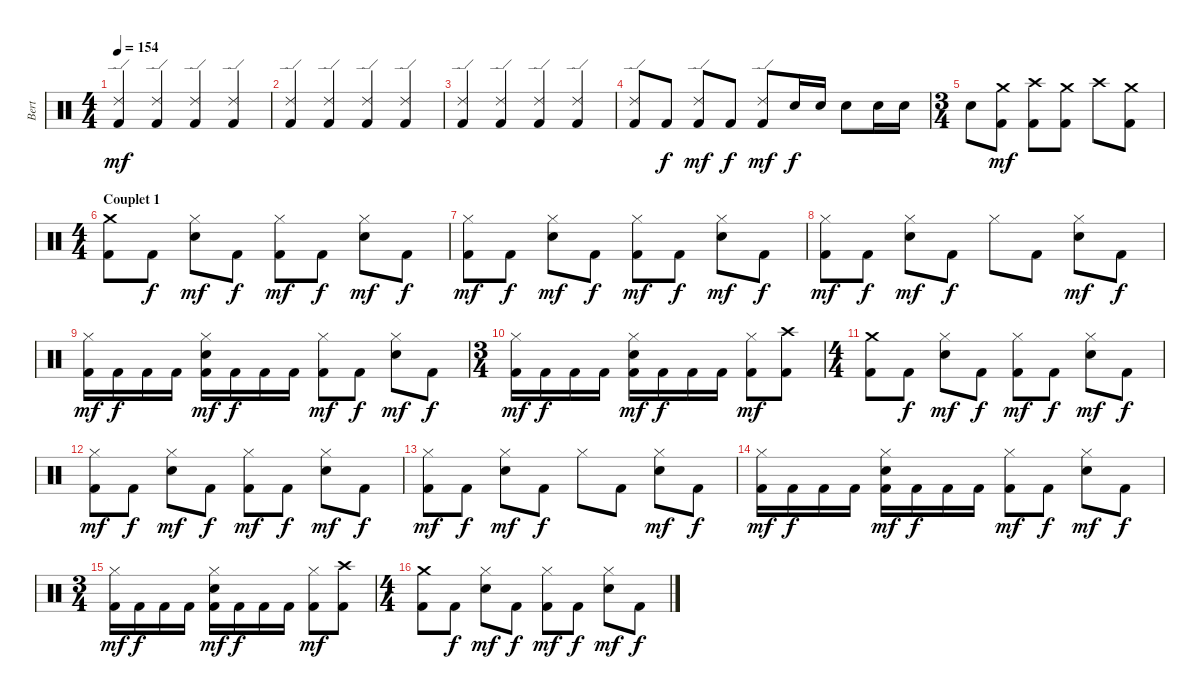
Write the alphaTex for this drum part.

\track ("Bert" "Bert") {instrument percussion}
\staff {score}
\articulation defaults
\ts (4 4)
\tempo 154
\clef neutral
\ks c
("Ride (edge) 2" "Kick (hit) 2").4{dy mf} ("Ride (edge) 2" "Kick (hit) 2").4 ("Ride (edge) 2" "Kick (hit) 2").4 ("Ride (edge) 2" "Kick (hit) 2").4 |
("Ride (edge) 2" "Kick (hit) 2").4 ("Ride (edge) 2" "Kick (hit) 2").4 ("Ride (edge) 2" "Kick (hit) 2").4 ("Ride (edge) 2" "Kick (hit) 2").4 |
("Ride (edge) 2" "Kick (hit) 2").4 ("Ride (edge) 2" "Kick (hit) 2").4 ("Ride (edge) 2" "Kick (hit) 2").4 ("Ride (edge) 2" "Kick (hit) 2").4 |
("Ride (edge) 2" "Kick (hit) 2").8 "Kick (hit) 2".8{dy f} ("Ride (edge) 2" "Kick (hit) 2").8{dy mf} "Kick (hit) 2".8{dy f} ("Ride (edge) 2" "Kick (hit) 2").8{dy mf} "Snare (hit) 2".16{dy f} "Snare (hit) 2".16 "Snare (hit) 2".8 "Snare (hit) 2".16 "Snare (hit) 2".16 |
\ts (3 4)
"Snare (hit) 2".8 ("Crash medium (hit)" "Kick (hit) 2").8{dy mf} ("Crash high (hit)" "Kick (hit) 2").8 ("Crash medium (hit)" "Kick (hit) 2").8 "Crash high (hit)".8 ("Crash medium (hit)" "Kick (hit) 2").8 |
\ts (4 4)
\section ("" "Couplet 1")
("Crash medium (hit)" "Kick (hit) 2").8 "Kick (hit) 2".8{dy f} ("Hi-Hat (closed)" "Snare (hit) 2").8{dy mf} "Kick (hit) 2".8{dy f} ("Hi-Hat (closed)" "Kick (hit) 2").8{dy mf} "Kick (hit) 2".8{dy f} ("Hi-Hat (closed)" "Snare (hit) 2").8{dy mf} "Kick (hit) 2".8{dy f} |
("Hi-Hat (closed)" "Kick (hit) 2").8{dy mf} "Kick (hit) 2".8{dy f} ("Hi-Hat (closed)" "Snare (hit) 2").8{dy mf} "Kick (hit) 2".8{dy f} ("Hi-Hat (closed)" "Kick (hit) 2").8{dy mf} "Kick (hit) 2".8{dy f} ("Hi-Hat (closed)" "Snare (hit) 2").8{dy mf} "Kick (hit) 2".8{dy f} |
("Hi-Hat (closed)" "Kick (hit) 2").8{dy mf} "Kick (hit) 2".8{dy f} ("Hi-Hat (closed)" "Snare (hit) 2").8{dy mf} "Kick (hit) 2".8{dy f} "Hi-Hat (closed)".8 "Kick (hit) 2".8 ("Hi-Hat (closed)" "Snare (hit) 2").8{dy mf} "Kick (hit) 2".8{dy f} |
("Hi-Hat (closed)" "Kick (hit) 2").16{dy mf} "Kick (hit) 2".16{dy f} "Kick (hit) 2".16 "Kick (hit) 2".16 ("Hi-Hat (closed)" "Snare (hit) 2" "Kick (hit) 2").16{dy mf} "Kick (hit) 2".16{dy f} "Kick (hit) 2".16 "Kick (hit) 2".16 ("Hi-Hat (closed)" "Kick (hit) 2").8{dy mf} "Kick (hit) 2".8{dy f} ("Hi-Hat (closed)" "Snare (hit) 2").8{dy mf} "Kick (hit) 2".8{dy f} |
\ts (3 4)
("Hi-Hat (closed)" "Kick (hit) 2").16{dy mf} "Kick (hit) 2".16{dy f} "Kick (hit) 2".16 "Kick (hit) 2".16 ("Hi-Hat (closed)" "Snare (hit) 2" "Kick (hit) 2").16{dy mf} "Kick (hit) 2".16{dy f} "Kick (hit) 2".16 "Kick (hit) 2".16 ("Hi-Hat (closed)" "Kick (hit) 2").8{dy mf} ("Crash high (hit)" "Kick (hit) 2").8 |
\ts (4 4)
("Crash medium (hit)" "Kick (hit) 2").8 "Kick (hit) 2".8{dy f} ("Hi-Hat (closed)" "Snare (hit) 2").8{dy mf} "Kick (hit) 2".8{dy f} ("Hi-Hat (closed)" "Kick (hit) 2").8{dy mf} "Kick (hit) 2".8{dy f} ("Hi-Hat (closed)" "Snare (hit) 2").8{dy mf} "Kick (hit) 2".8{dy f} |
("Hi-Hat (closed)" "Kick (hit) 2").8{dy mf} "Kick (hit) 2".8{dy f} ("Hi-Hat (closed)" "Snare (hit) 2").8{dy mf} "Kick (hit) 2".8{dy f} ("Hi-Hat (closed)" "Kick (hit) 2").8{dy mf} "Kick (hit) 2".8{dy f} ("Hi-Hat (closed)" "Snare (hit) 2").8{dy mf} "Kick (hit) 2".8{dy f} |
("Hi-Hat (closed)" "Kick (hit) 2").8{dy mf} "Kick (hit) 2".8{dy f} ("Hi-Hat (closed)" "Snare (hit) 2").8{dy mf} "Kick (hit) 2".8{dy f} "Hi-Hat (closed)".8 "Kick (hit) 2".8 ("Hi-Hat (closed)" "Snare (hit) 2").8{dy mf} "Kick (hit) 2".8{dy f} |
("Hi-Hat (closed)" "Kick (hit) 2").16{dy mf} "Kick (hit) 2".16{dy f} "Kick (hit) 2".16 "Kick (hit) 2".16 ("Hi-Hat (closed)" "Snare (hit) 2" "Kick (hit) 2").16{dy mf} "Kick (hit) 2".16{dy f} "Kick (hit) 2".16 "Kick (hit) 2".16 ("Hi-Hat (closed)" "Kick (hit) 2").8{dy mf} "Kick (hit) 2".8{dy f} ("Hi-Hat (closed)" "Snare (hit) 2").8{dy mf} "Kick (hit) 2".8{dy f} |
\ts (3 4)
("Hi-Hat (closed)" "Kick (hit) 2").16{dy mf} "Kick (hit) 2".16{dy f} "Kick (hit) 2".16 "Kick (hit) 2".16 ("Hi-Hat (closed)" "Snare (hit) 2" "Kick (hit) 2").16{dy mf} "Kick (hit) 2".16{dy f} "Kick (hit) 2".16 "Kick (hit) 2".16 ("Hi-Hat (closed)" "Kick (hit) 2").8{dy mf} ("Crash high (hit)" "Kick (hit) 2").8 |
\ts (4 4)
("Crash medium (hit)" "Kick (hit) 2").8 "Kick (hit) 2".8{dy f} ("Hi-Hat (closed)" "Snare (hit) 2").8{dy mf} "Kick (hit) 2".8{dy f} ("Hi-Hat (closed)" "Kick (hit) 2").8{dy mf} "Kick (hit) 2".8{dy f} ("Hi-Hat (closed)" "Snare (hit) 2").8{dy mf} "Kick (hit) 2".8{dy f}
